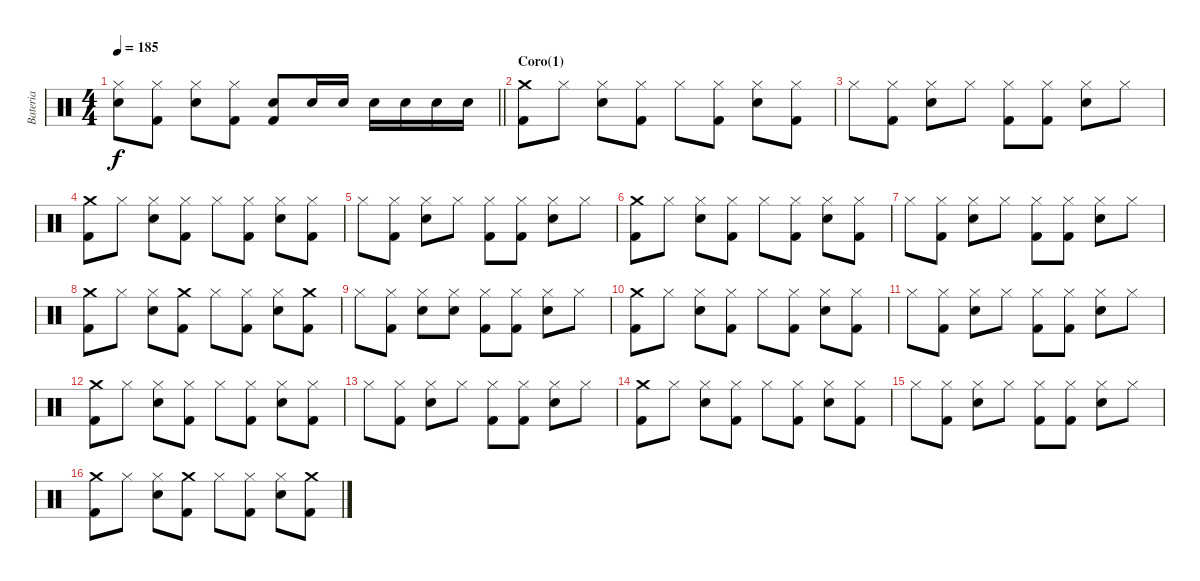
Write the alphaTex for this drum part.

\track ("Bateria" "Bateria") {instrument percussion}
\staff {score}
\articulation defaults
\ts (4 4)
\tempo 185
\clef neutral
\barLineRight lightlight
\ks c
("Hi-Hat (closed)" "Snare (hit) 2").8{dy f} ("Hi-Hat (closed)" "Kick (hit) 2").8 ("Hi-Hat (closed)" "Snare (hit) 2").8 ("Hi-Hat (closed)" "Kick (hit) 2").8 ("Snare (hit) 2" "Kick (hit) 2").8 "Snare (hit) 2".16 "Snare (hit) 2".16 "Snare (hit) 2".16 "Snare (hit) 2".16 "Snare (hit) 2".16 "Snare (hit) 2".16 |
\section ("" "Coro(1)")
("Crash medium (hit)" "Kick (hit) 2").8 "Hi-Hat (closed)".8 ("Hi-Hat (closed)" "Snare (hit) 2").8 ("Hi-Hat (closed)" "Kick (hit) 2").8 "Hi-Hat (closed)".8 ("Hi-Hat (closed)" "Kick (hit) 2").8 ("Hi-Hat (closed)" "Snare (hit) 2").8 ("Hi-Hat (closed)" "Kick (hit) 2").8 |
"Hi-Hat (closed)".8 ("Hi-Hat (closed)" "Kick (hit) 2").8 ("Hi-Hat (closed)" "Snare (hit) 2").8 "Hi-Hat (closed)".8 ("Hi-Hat (closed)" "Kick (hit) 2").8 ("Hi-Hat (closed)" "Kick (hit) 2").8 ("Hi-Hat (closed)" "Snare (hit) 2").8 "Hi-Hat (closed)".8 |
("Crash medium (hit)" "Kick (hit) 2").8 "Hi-Hat (closed)".8 ("Hi-Hat (closed)" "Snare (hit) 2").8 ("Hi-Hat (closed)" "Kick (hit) 2").8 "Hi-Hat (closed)".8 ("Hi-Hat (closed)" "Kick (hit) 2").8 ("Hi-Hat (closed)" "Snare (hit) 2").8 ("Hi-Hat (closed)" "Kick (hit) 2").8 |
"Hi-Hat (closed)".8 ("Hi-Hat (closed)" "Kick (hit) 2").8 ("Hi-Hat (closed)" "Snare (hit) 2").8 "Hi-Hat (closed)".8 ("Hi-Hat (closed)" "Kick (hit) 2").8 ("Hi-Hat (closed)" "Kick (hit) 2").8 ("Hi-Hat (closed)" "Snare (hit) 2").8 "Hi-Hat (closed)".8 |
("Crash medium (hit)" "Kick (hit) 2").8 "Hi-Hat (closed)".8 ("Hi-Hat (closed)" "Snare (hit) 2").8 ("Hi-Hat (closed)" "Kick (hit) 2").8 "Hi-Hat (closed)".8 ("Hi-Hat (closed)" "Kick (hit) 2").8 ("Hi-Hat (closed)" "Snare (hit) 2").8 ("Hi-Hat (closed)" "Kick (hit) 2").8 |
"Hi-Hat (closed)".8 ("Hi-Hat (closed)" "Kick (hit) 2").8 ("Hi-Hat (closed)" "Snare (hit) 2").8 "Hi-Hat (closed)".8 ("Hi-Hat (closed)" "Kick (hit) 2").8 ("Hi-Hat (closed)" "Kick (hit) 2").8 ("Hi-Hat (closed)" "Snare (hit) 2").8 "Hi-Hat (closed)".8 |
("Crash medium (hit)" "Kick (hit) 2").8 "Hi-Hat (closed)".8 ("Hi-Hat (closed)" "Snare (hit) 2").8 ("Crash medium (hit)" "Kick (hit) 2").8 "Hi-Hat (closed)".8 ("Hi-Hat (closed)" "Kick (hit) 2").8 ("Hi-Hat (closed)" "Snare (hit) 2").8 ("Crash medium (hit)" "Kick (hit) 2").8 |
"Hi-Hat (closed)".8 ("Hi-Hat (closed)" "Kick (hit) 2").8 ("Hi-Hat (closed)" "Snare (hit) 2").8 ("Hi-Hat (closed)" "Snare (hit) 2").8 ("Hi-Hat (closed)" "Kick (hit) 2").8 ("Hi-Hat (closed)" "Kick (hit) 2").8 ("Hi-Hat (closed)" "Snare (hit) 2").8 "Hi-Hat (closed)".8 |
("Crash medium (hit)" "Kick (hit) 2").8 "Hi-Hat (closed)".8 ("Hi-Hat (closed)" "Snare (hit) 2").8 ("Hi-Hat (closed)" "Kick (hit) 2").8 "Hi-Hat (closed)".8 ("Hi-Hat (closed)" "Kick (hit) 2").8 ("Hi-Hat (closed)" "Snare (hit) 2").8 ("Hi-Hat (closed)" "Kick (hit) 2").8 |
"Hi-Hat (closed)".8 ("Hi-Hat (closed)" "Kick (hit) 2").8 ("Hi-Hat (closed)" "Snare (hit) 2").8 "Hi-Hat (closed)".8 ("Hi-Hat (closed)" "Kick (hit) 2").8 ("Hi-Hat (closed)" "Kick (hit) 2").8 ("Hi-Hat (closed)" "Snare (hit) 2").8 "Hi-Hat (closed)".8 |
("Crash medium (hit)" "Kick (hit) 2").8 "Hi-Hat (closed)".8 ("Hi-Hat (closed)" "Snare (hit) 2").8 ("Hi-Hat (closed)" "Kick (hit) 2").8 "Hi-Hat (closed)".8 ("Hi-Hat (closed)" "Kick (hit) 2").8 ("Hi-Hat (closed)" "Snare (hit) 2").8 ("Hi-Hat (closed)" "Kick (hit) 2").8 |
"Hi-Hat (closed)".8 ("Hi-Hat (closed)" "Kick (hit) 2").8 ("Hi-Hat (closed)" "Snare (hit) 2").8 "Hi-Hat (closed)".8 ("Hi-Hat (closed)" "Kick (hit) 2").8 ("Hi-Hat (closed)" "Kick (hit) 2").8 ("Hi-Hat (closed)" "Snare (hit) 2").8 "Hi-Hat (closed)".8 |
("Crash medium (hit)" "Kick (hit) 2").8 "Hi-Hat (closed)".8 ("Hi-Hat (closed)" "Snare (hit) 2").8 ("Hi-Hat (closed)" "Kick (hit) 2").8 "Hi-Hat (closed)".8 ("Hi-Hat (closed)" "Kick (hit) 2").8 ("Hi-Hat (closed)" "Snare (hit) 2").8 ("Hi-Hat (closed)" "Kick (hit) 2").8 |
"Hi-Hat (closed)".8 ("Hi-Hat (closed)" "Kick (hit) 2").8 ("Hi-Hat (closed)" "Snare (hit) 2").8 "Hi-Hat (closed)".8 ("Hi-Hat (closed)" "Kick (hit) 2").8 ("Hi-Hat (closed)" "Kick (hit) 2").8 ("Hi-Hat (closed)" "Snare (hit) 2").8 "Hi-Hat (closed)".8 |
("Crash medium (hit)" "Kick (hit) 2").8 "Hi-Hat (closed)".8 ("Hi-Hat (closed)" "Snare (hit) 2").8 ("Crash medium (hit)" "Kick (hit) 2").8 "Hi-Hat (closed)".8 ("Hi-Hat (closed)" "Kick (hit) 2").8 ("Hi-Hat (closed)" "Snare (hit) 2").8 ("Crash medium (hit)" "Kick (hit) 2").8
